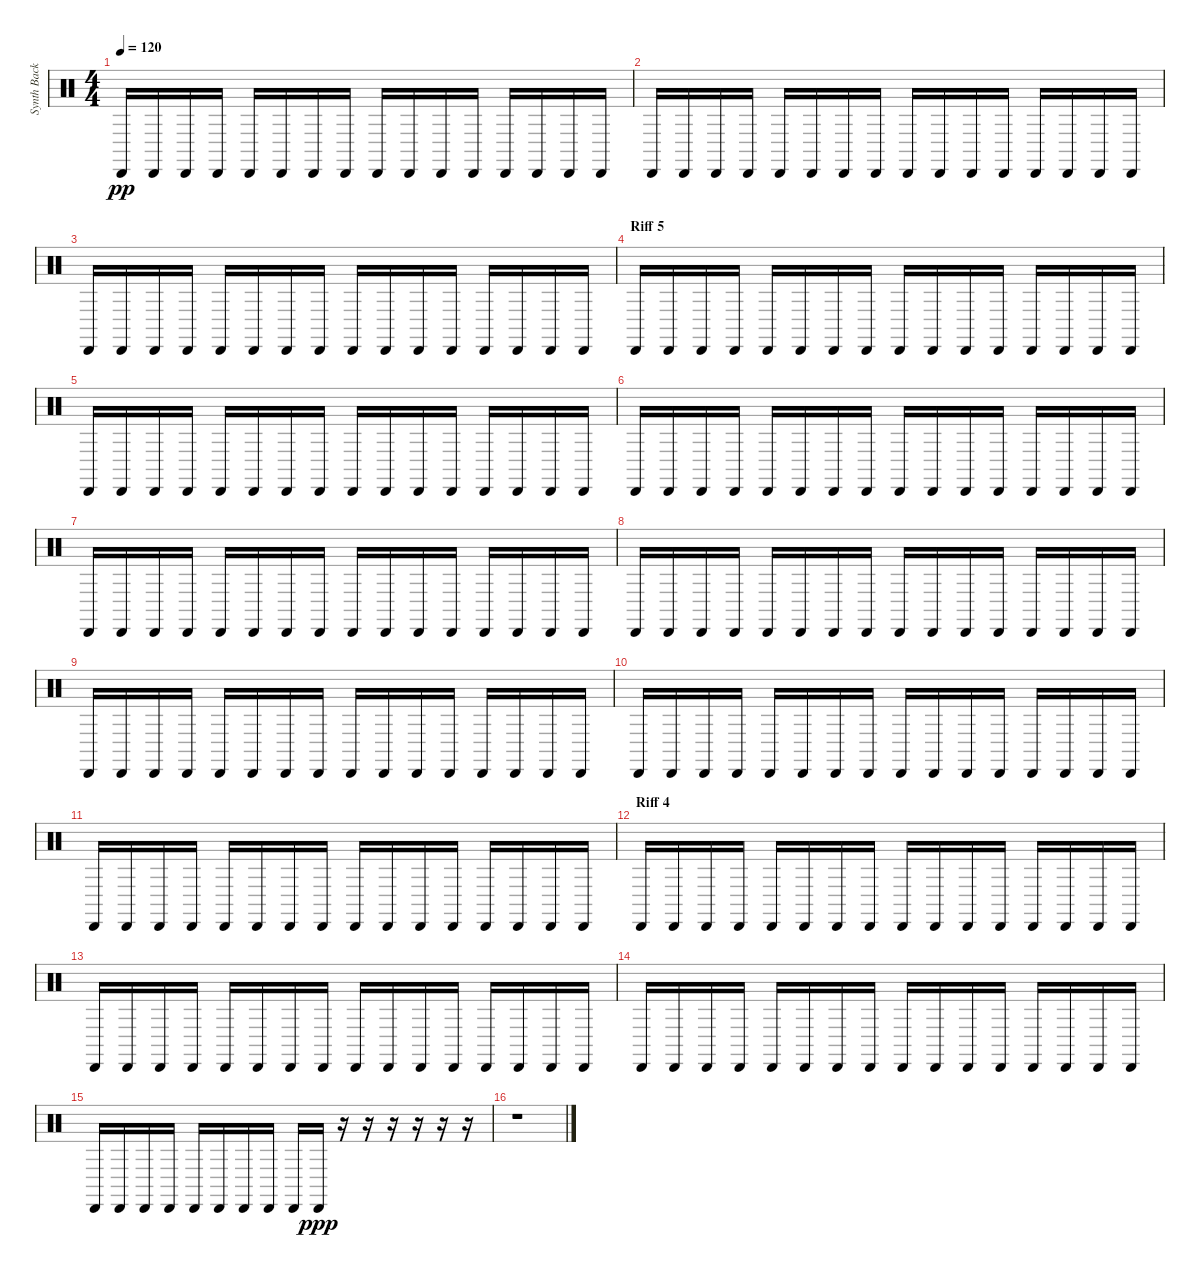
\track ("Synth Background Rhythm" "Synth Back") {instrument percussion}
\staff {score}
\articulation defaults
\ts (4 4)
\tempo 120
\clef neutral
\ks c "Cabasa (hit)".16{dy pp} "Cabasa (hit)".16 "Cabasa (hit)".16 "Cabasa (hit)".16 "Cabasa (hit)".16 "Cabasa (hit)".16 "Cabasa (hit)".16 "Cabasa (hit)".16 "Cabasa (hit)".16 "Cabasa (hit)".16 "Cabasa (hit)".16 "Cabasa (hit)".16 "Cabasa (hit)".16 "Cabasa (hit)".16 "Cabasa (hit)".16 "Cabasa (hit)".16
|
"Cabasa (hit)".16 "Cabasa (hit)".16 "Cabasa (hit)".16 "Cabasa (hit)".16 "Cabasa (hit)".16 "Cabasa (hit)".16 "Cabasa (hit)".16 "Cabasa (hit)".16 "Cabasa (hit)".16 "Cabasa (hit)".16 "Cabasa (hit)".16 "Cabasa (hit)".16 "Cabasa (hit)".16 "Cabasa (hit)".16 "Cabasa (hit)".16 "Cabasa (hit)".16 |
"Cabasa (hit)".16 "Cabasa (hit)".16 "Cabasa (hit)".16 "Cabasa (hit)".16 "Cabasa (hit)".16 "Cabasa (hit)".16 "Cabasa (hit)".16 "Cabasa (hit)".16 "Cabasa (hit)".16 "Cabasa (hit)".16 "Cabasa (hit)".16 "Cabasa (hit)".16 "Cabasa (hit)".16 "Cabasa (hit)".16 "Cabasa (hit)".16 "Cabasa (hit)".16 |
\section ("" "Riff 5")
"Cabasa (hit)".16 "Cabasa (hit)".16 "Cabasa (hit)".16 "Cabasa (hit)".16 "Cabasa (hit)".16 "Cabasa (hit)".16 "Cabasa (hit)".16 "Cabasa (hit)".16 "Cabasa (hit)".16 "Cabasa (hit)".16 "Cabasa (hit)".16 "Cabasa (hit)".16 "Cabasa (hit)".16 "Cabasa (hit)".16 "Cabasa (hit)".16 "Cabasa (hit)".16 |
"Cabasa (hit)".16 "Cabasa (hit)".16 "Cabasa (hit)".16 "Cabasa (hit)".16 "Cabasa (hit)".16 "Cabasa (hit)".16 "Cabasa (hit)".16 "Cabasa (hit)".16 "Cabasa (hit)".16 "Cabasa (hit)".16 "Cabasa (hit)".16 "Cabasa (hit)".16 "Cabasa (hit)".16 "Cabasa (hit)".16 "Cabasa (hit)".16 "Cabasa (hit)".16 |
"Cabasa (hit)".16 "Cabasa (hit)".16 "Cabasa (hit)".16 "Cabasa (hit)".16 "Cabasa (hit)".16 "Cabasa (hit)".16 "Cabasa (hit)".16 "Cabasa (hit)".16 "Cabasa (hit)".16 "Cabasa (hit)".16 "Cabasa (hit)".16 "Cabasa (hit)".16 "Cabasa (hit)".16 "Cabasa (hit)".16 "Cabasa (hit)".16 "Cabasa (hit)".16 |
"Cabasa (hit)".16 "Cabasa (hit)".16 "Cabasa (hit)".16 "Cabasa (hit)".16 "Cabasa (hit)".16 "Cabasa (hit)".16 "Cabasa (hit)".16 "Cabasa (hit)".16 "Cabasa (hit)".16 "Cabasa (hit)".16 "Cabasa (hit)".16 "Cabasa (hit)".16 "Cabasa (hit)".16 "Cabasa (hit)".16 "Cabasa (hit)".16 "Cabasa (hit)".16 |
"Cabasa (hit)".16 "Cabasa (hit)".16 "Cabasa (hit)".16 "Cabasa (hit)".16 "Cabasa (hit)".16 "Cabasa (hit)".16 "Cabasa (hit)".16 "Cabasa (hit)".16 "Cabasa (hit)".16 "Cabasa (hit)".16 "Cabasa (hit)".16 "Cabasa (hit)".16 "Cabasa (hit)".16 "Cabasa (hit)".16 "Cabasa (hit)".16 "Cabasa (hit)".16 |
"Cabasa (hit)".16 "Cabasa (hit)".16 "Cabasa (hit)".16 "Cabasa (hit)".16 "Cabasa (hit)".16 "Cabasa (hit)".16 "Cabasa (hit)".16 "Cabasa (hit)".16 "Cabasa (hit)".16 "Cabasa (hit)".16 "Cabasa (hit)".16 "Cabasa (hit)".16 "Cabasa (hit)".16 "Cabasa (hit)".16 "Cabasa (hit)".16 "Cabasa (hit)".16 |
"Cabasa (hit)".16 "Cabasa (hit)".16 "Cabasa (hit)".16 "Cabasa (hit)".16 "Cabasa (hit)".16 "Cabasa (hit)".16 "Cabasa (hit)".16 "Cabasa (hit)".16 "Cabasa (hit)".16 "Cabasa (hit)".16 "Cabasa (hit)".16 "Cabasa (hit)".16 "Cabasa (hit)".16 "Cabasa (hit)".16 "Cabasa (hit)".16 "Cabasa (hit)".16 |
"Cabasa (hit)".16 "Cabasa (hit)".16 "Cabasa (hit)".16 "Cabasa (hit)".16 "Cabasa (hit)".16 "Cabasa (hit)".16 "Cabasa (hit)".16 "Cabasa (hit)".16 "Cabasa (hit)".16 "Cabasa (hit)".16 "Cabasa (hit)".16 "Cabasa (hit)".16 "Cabasa (hit)".16 "Cabasa (hit)".16 "Cabasa (hit)".16 "Cabasa (hit)".16 |
\section ("" "Riff 4")
"Cabasa (hit)".16 "Cabasa (hit)".16 "Cabasa (hit)".16 "Cabasa (hit)".16 "Cabasa (hit)".16 "Cabasa (hit)".16 "Cabasa (hit)".16 "Cabasa (hit)".16 "Cabasa (hit)".16 "Cabasa (hit)".16 "Cabasa (hit)".16 "Cabasa (hit)".16 "Cabasa (hit)".16 "Cabasa (hit)".16 "Cabasa (hit)".16 "Cabasa (hit)".16 |
"Cabasa (hit)".16 "Cabasa (hit)".16 "Cabasa (hit)".16 "Cabasa (hit)".16 "Cabasa (hit)".16 "Cabasa (hit)".16 "Cabasa (hit)".16 "Cabasa (hit)".16 "Cabasa (hit)".16 "Cabasa (hit)".16 "Cabasa (hit)".16 "Cabasa (hit)".16 "Cabasa (hit)".16 "Cabasa (hit)".16 "Cabasa (hit)".16 "Cabasa (hit)".16 |
"Cabasa (hit)".16 "Cabasa (hit)".16 "Cabasa (hit)".16 "Cabasa (hit)".16 "Cabasa (hit)".16 "Cabasa (hit)".16 "Cabasa (hit)".16 "Cabasa (hit)".16 "Cabasa (hit)".16 "Cabasa (hit)".16 "Cabasa (hit)".16 "Cabasa (hit)".16 "Cabasa (hit)".16 "Cabasa (hit)".16 "Cabasa (hit)".16 "Cabasa (hit)".16 |
"Cabasa (hit)".16 "Cabasa (hit)".16 "Cabasa (hit)".16 "Cabasa (hit)".16 "Cabasa (hit)".16 "Cabasa (hit)".16 "Cabasa (hit)".16 "Cabasa (hit)".16 "Cabasa (hit)".16 "Cabasa (hit)".16{dy ppp} r.16 r.16 r.16 r.16 r.16 r.16 |
r.1
